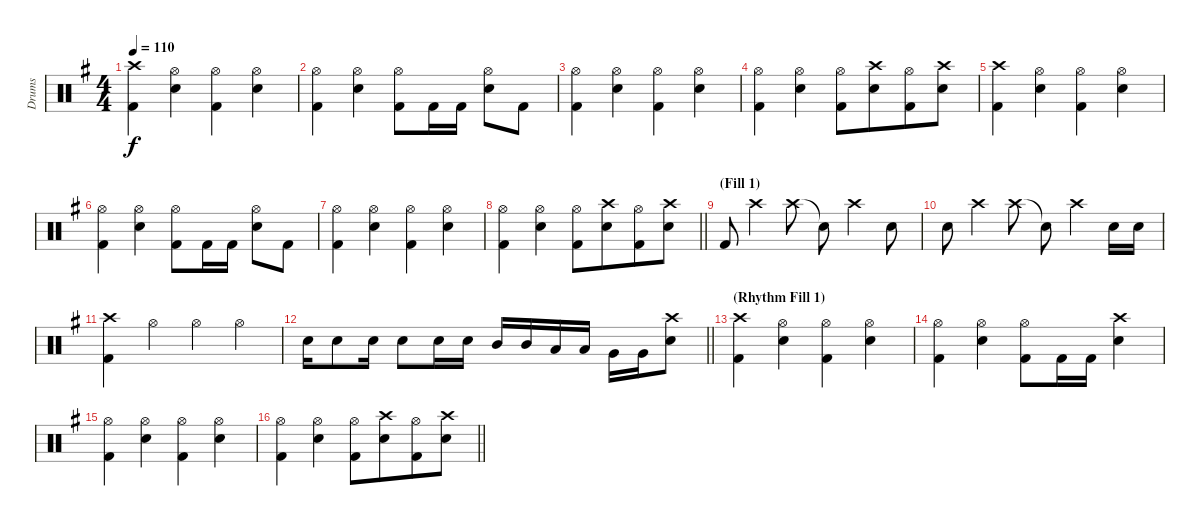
\track ("Drums" "Drums") {instrument percussion}
\staff {score}
\articulation defaults
\ts (4 4)
\tempo 110
\clef neutral
\ks eminor
("Crash high (hit)" "Kick (hit) 2").4{dy f} ("Hi-Hat (open)" "Electric Snare (hit)").4 ("Hi-Hat (open)" "Kick (hit) 2").4 ("Hi-Hat (open)" "Electric Snare (hit)").4 |
("Hi-Hat (open)" "Kick (hit) 2").4 ("Hi-Hat (open)" "Electric Snare (hit)").4 ("Hi-Hat (open)" "Kick (hit) 2").8 "Kick (hit) 2".16 "Kick (hit) 2".16 ("Hi-Hat (open)" "Electric Snare (hit)").8 "Kick (hit) 2".8 |
("Hi-Hat (open)" "Kick (hit) 2").4 ("Hi-Hat (open)" "Electric Snare (hit)").4 ("Hi-Hat (open)" "Kick (hit) 2").4 ("Hi-Hat (open)" "Electric Snare (hit)").4 |
("Hi-Hat (open)" "Kick (hit) 2").4 ("Hi-Hat (open)" "Electric Snare (hit)").4 ("Hi-Hat (open)" "Kick (hit) 2").8 ("Crash high (hit)" "Electric Snare (hit)").8{beam merge} ("Hi-Hat (open)" "Kick (hit) 2").8 ("Crash high (hit)" "Electric Snare (hit)").8 |
("Crash high (hit)" "Kick (hit) 2").4 ("Hi-Hat (open)" "Electric Snare (hit)").4 ("Hi-Hat (open)" "Kick (hit) 2").4 ("Hi-Hat (open)" "Electric Snare (hit)").4 |
("Hi-Hat (open)" "Kick (hit) 2").4 ("Hi-Hat (open)" "Electric Snare (hit)").4 ("Hi-Hat (open)" "Kick (hit) 2").8 "Kick (hit) 2".16 "Kick (hit) 2".16 ("Hi-Hat (open)" "Electric Snare (hit)").8 "Kick (hit) 2".8 |
("Hi-Hat (open)" "Kick (hit) 2").4 ("Hi-Hat (open)" "Electric Snare (hit)").4 ("Hi-Hat (open)" "Kick (hit) 2").4 ("Hi-Hat (open)" "Electric Snare (hit)").4 |
\barLineRight lightlight
("Hi-Hat (open)" "Kick (hit) 2").4 ("Hi-Hat (open)" "Electric Snare (hit)").4 ("Hi-Hat (open)" "Kick (hit) 2").8 ("Crash high (hit)" "Electric Snare (hit)").8{beam merge} ("Hi-Hat (open)" "Kick (hit) 2").8 ("Crash high (hit)" "Electric Snare (hit)").8 |
\section ("" "(Fill 1)")
"Kick (hit) 2".8 "Crash high (hit)".4 "Crash high (hit)".8 "Snare (hit)"{t}.8 "Crash high (hit)".4 "Electric Snare (hit)".8 |
"Electric Snare (hit)".8 "Crash high (hit)".4 "Crash high (hit)".8 "Snare (hit)"{t}.8 "Crash high (hit)".4 "Electric Snare (hit)".16 "Electric Snare (hit)".16 |
("Crash high (hit)" "Kick (hit) 2").4 "Hi-Hat (open)".4 "Hi-Hat (open)".4 "Hi-Hat (open)".4 |
\barLineRight lightlight "Electric Snare (hit)".16 "Electric Snare (hit)".8 "Electric Snare (hit)".16 "Electric Snare (hit)".8 "Electric Snare (hit)".16 "Electric Snare (hit)".16 "Mid Tom (hit)".16 "Mid Tom (hit)".16 "Low Tom (hit)".16 "Low Tom (hit)".16 "Very Low Tom (hit)".16 "Very Low Tom (hit)".16
("Crash high (hit)" "Electric Snare (hit)").8 |
\section ("" "(Rhythm Fill 1)")
("Crash high (hit)" "Kick (hit) 2").4 ("Hi-Hat (open)" "Electric Snare (hit)").4 ("Hi-Hat (open)" "Kick (hit) 2").4 ("Hi-Hat (open)" "Electric Snare (hit)").4 |
("Hi-Hat (open)" "Kick (hit) 2").4 ("Hi-Hat (open)" "Electric Snare (hit)").4 ("Hi-Hat (open)" "Kick (hit) 2").8 "Kick (hit) 2".16 "Kick (hit) 2".16 ("Crash high (hit)" "Electric Snare (hit)").4 |
("Hi-Hat (open)" "Kick (hit) 2").4 ("Hi-Hat (open)" "Electric Snare (hit)").4 ("Hi-Hat (open)" "Kick (hit) 2").4 ("Hi-Hat (open)" "Electric Snare (hit)").4 |
\barLineRight lightlight
("Hi-Hat (open)" "Kick (hit) 2").4 ("Hi-Hat (open)" "Electric Snare (hit)").4 ("Hi-Hat (open)" "Kick (hit) 2").8 ("Crash high (hit)" "Electric Snare (hit)").8{beam merge} ("Hi-Hat (open)" "Kick (hit) 2").8 ("Crash high (hit)" "Electric Snare (hit)").8
